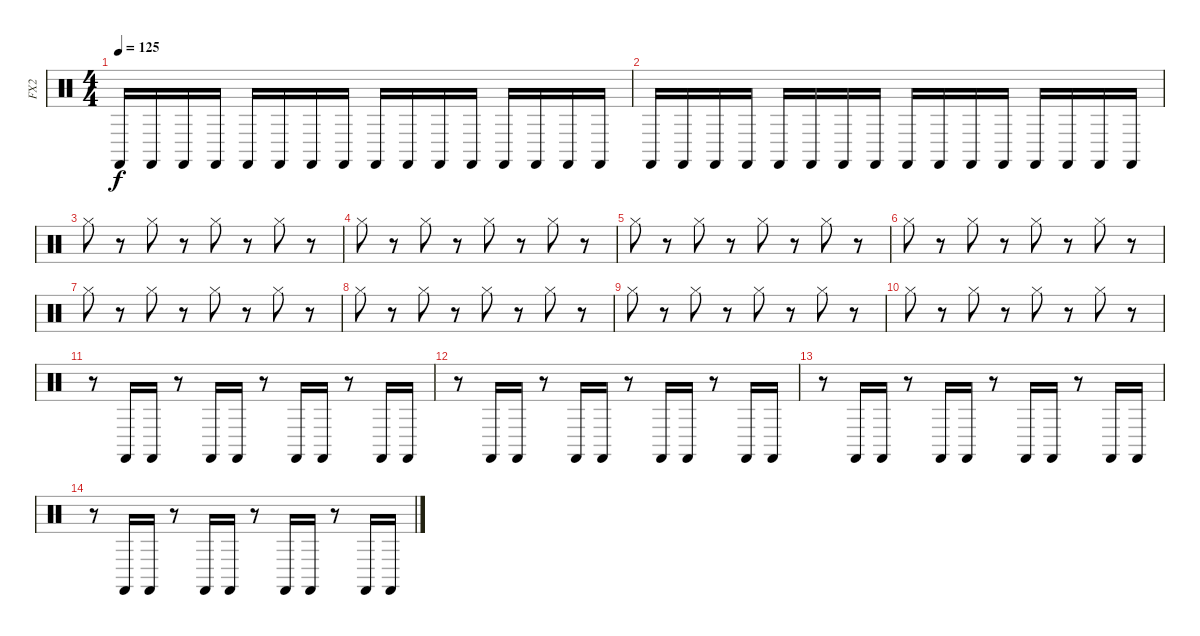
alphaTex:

\track ("FX2" "FX2") {instrument percussion}
\staff {score}
\articulation defaults
\ts (4 4)
\tempo 125
\clef neutral
\ks c "Castanets (hit)".16{dy f} "Castanets (hit)".16 "Castanets (hit)".16 "Castanets (hit)".16 "Castanets (hit)".16 "Castanets (hit)".16 "Castanets (hit)".16 "Castanets (hit)".16 "Castanets (hit)".16 "Castanets (hit)".16 "Castanets (hit)".16 "Castanets (hit)".16 "Castanets (hit)".16 "Castanets (hit)".16 "Castanets (hit)".16 "Castanets (hit)".16
|
"Castanets (hit)".16 "Castanets (hit)".16 "Castanets (hit)".16 "Castanets (hit)".16 "Castanets (hit)".16 "Castanets (hit)".16 "Castanets (hit)".16 "Castanets (hit)".16 "Castanets (hit)".16 "Castanets (hit)".16 "Castanets (hit)".16 "Castanets (hit)".16 "Castanets (hit)".16 "Castanets (hit)".16 "Castanets (hit)".16 "Castanets (hit)".16 |
"Hi-Hat (closed)".8 r.8 "Hi-Hat (closed)".8 r.8 "Hi-Hat (closed)".8 r.8 "Hi-Hat (closed)".8 r.8 |
"Hi-Hat (closed)".8 r.8 "Hi-Hat (closed)".8 r.8 "Hi-Hat (closed)".8 r.8 "Hi-Hat (closed)".8 r.8 |
"Hi-Hat (closed)".8 r.8 "Hi-Hat (closed)".8 r.8 "Hi-Hat (closed)".8 r.8 "Hi-Hat (closed)".8 r.8 |
"Hi-Hat (closed)".8 r.8 "Hi-Hat (closed)".8 r.8 "Hi-Hat (closed)".8 r.8 "Hi-Hat (closed)".8 r.8 |
"Hi-Hat (closed)".8 r.8 "Hi-Hat (closed)".8 r.8 "Hi-Hat (closed)".8 r.8 "Hi-Hat (closed)".8 r.8 |
"Hi-Hat (closed)".8 r.8 "Hi-Hat (closed)".8 r.8 "Hi-Hat (closed)".8 r.8 "Hi-Hat (closed)".8 r.8 |
"Hi-Hat (closed)".8 r.8 "Hi-Hat (closed)".8 r.8 "Hi-Hat (closed)".8 r.8 "Hi-Hat (closed)".8 r.8 |
"Hi-Hat (closed)".8 r.8 "Hi-Hat (closed)".8 r.8 "Hi-Hat (closed)".8 r.8 "Hi-Hat (closed)".8 r.8 |
r.8 "Castanets (hit)".16 "Castanets (hit)".16 r.8 "Castanets (hit)".16 "Castanets (hit)".16 r.8 "Castanets (hit)".16 "Castanets (hit)".16 r.8 "Castanets (hit)".16 "Castanets (hit)".16 |
r.8 "Castanets (hit)".16 "Castanets (hit)".16 r.8 "Castanets (hit)".16 "Castanets (hit)".16 r.8 "Castanets (hit)".16 "Castanets (hit)".16 r.8 "Castanets (hit)".16 "Castanets (hit)".16 |
r.8 "Castanets (hit)".16 "Castanets (hit)".16 r.8 "Castanets (hit)".16 "Castanets (hit)".16 r.8 "Castanets (hit)".16 "Castanets (hit)".16 r.8 "Castanets (hit)".16 "Castanets (hit)".16 |
r.8 "Castanets (hit)".16 "Castanets (hit)".16 r.8 "Castanets (hit)".16 "Castanets (hit)".16 r.8 "Castanets (hit)".16 "Castanets (hit)".16 r.8 "Castanets (hit)".16 "Castanets (hit)".16
